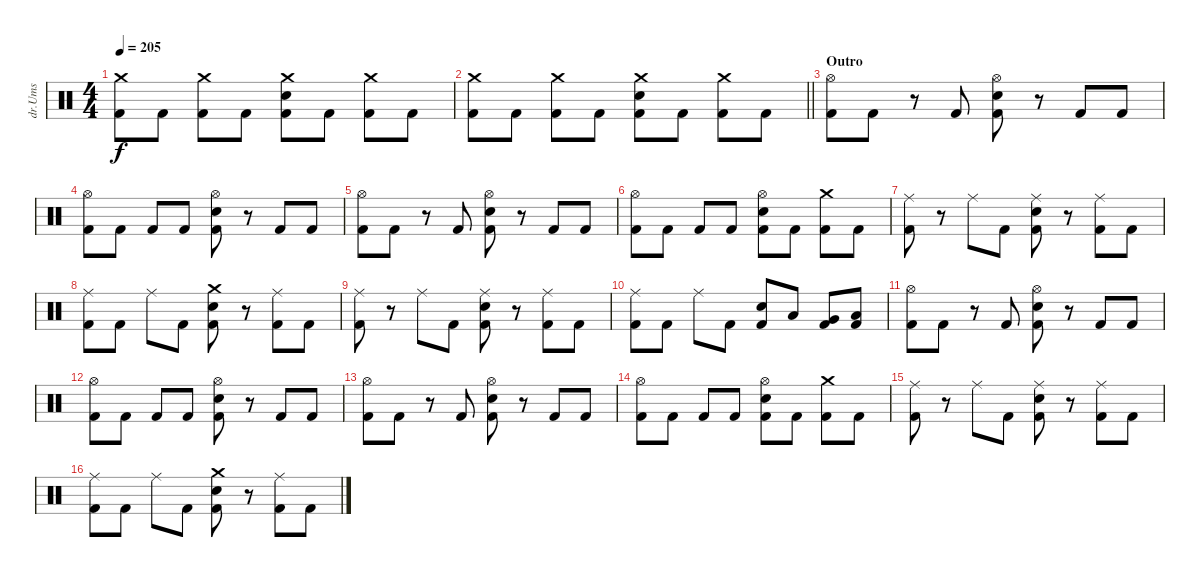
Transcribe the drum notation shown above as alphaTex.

\track ("dr.Ums" "dr.Ums") {instrument percussion}
\staff {score}
\articulation defaults
\ts (4 4)
\tempo 205
\clef neutral
\ks c
("Crash medium (hit)" "Kick (hit) 2").8{dy f} "Kick (hit) 2".8 ("Crash medium (hit)" "Kick (hit) 2").8 "Kick (hit) 2".8 ("Crash medium (hit)" "Snare (hit) 2" "Kick (hit) 2").8 "Kick (hit) 2".8 ("Crash medium (hit)" "Kick (hit) 2").8 "Kick (hit) 2".8 |
\barLineRight lightlight
("Crash medium (hit)" "Kick (hit) 2").8 "Kick (hit) 2".8 ("Crash medium (hit)" "Kick (hit) 2").8 "Kick (hit) 2".8 ("Crash medium (hit)" "Snare (hit) 2" "Kick (hit) 2").8 "Kick (hit) 2".8 ("Crash medium (hit)" "Kick (hit) 2").8 "Kick (hit) 2".8 |
\section ("" "Outro")
("Hi-Hat (open)" "Kick (hit) 2").8 "Kick (hit) 2".8 r.8 "Kick (hit) 2".8 ("Hi-Hat (open)" "Snare (hit) 2" "Kick (hit) 2").8 r.8 "Kick (hit) 2".8 "Kick (hit) 2".8 |
("Hi-Hat (open)" "Kick (hit) 2").8 "Kick (hit) 2".8 "Kick (hit) 2".8 "Kick (hit) 2".8 ("Hi-Hat (open)" "Snare (hit) 2" "Kick (hit) 2").8 r.8 "Kick (hit) 2".8 "Kick (hit) 2".8 |
("Hi-Hat (open)" "Kick (hit) 2").8 "Kick (hit) 2".8 r.8 "Kick (hit) 2".8 ("Hi-Hat (open)" "Snare (hit) 2" "Kick (hit) 2").8 r.8 "Kick (hit) 2".8 "Kick (hit) 2".8 |
("Hi-Hat (open)" "Kick (hit) 2").8 "Kick (hit) 2".8 "Kick (hit) 2".8 "Kick (hit) 2".8 ("Hi-Hat (open)" "Snare (hit) 2" "Kick (hit) 2").8 "Kick (hit) 2".8 ("Crash medium (hit)" "Kick (hit) 2").8 "Kick (hit) 2".8 |
("Ride (middle)" "Kick (hit) 2").8 r.8 "Ride (middle)".8 "Kick (hit) 2".8 ("Ride (middle)" "Snare (hit) 2" "Kick (hit) 2").8 r.8 ("Ride (middle)" "Kick (hit) 2").8 "Kick (hit) 2".8 |
("Ride (middle)" "Kick (hit) 2").8 "Kick (hit) 2".8 "Ride (middle)".8 "Kick (hit) 2".8 ("Crash medium (hit)" "Snare (hit) 2" "Kick (hit) 2").8 r.8 ("Ride (middle)" "Kick (hit) 2").8 "Kick (hit) 2".8 |
("Ride (middle)" "Kick (hit) 2").8 r.8 "Ride (middle)".8 "Kick (hit) 2".8 ("Ride (middle)" "Snare (hit) 2" "Kick (hit) 2").8 r.8 ("Ride (middle)" "Kick (hit) 2").8 "Kick (hit) 2".8 |
("Ride (middle)" "Kick (hit) 2").8 "Kick (hit) 2".8 "Ride (middle)".8 "Kick (hit) 2".8 ("Snare (hit) 2" "Kick (hit) 2").8 "Low Tom (hit)".8 ("Very Low Tom (hit)" "Kick (hit) 2").8 ("Low Floor Tom (hit)" "Kick (hit) 2").8 |
("Hi-Hat (open)" "Kick (hit) 2").8 "Kick (hit) 2".8 r.8 "Kick (hit) 2".8 ("Hi-Hat (open)" "Snare (hit) 2" "Kick (hit) 2").8 r.8 "Kick (hit) 2".8 "Kick (hit) 2".8 |
("Hi-Hat (open)" "Kick (hit) 2").8 "Kick (hit) 2".8 "Kick (hit) 2".8 "Kick (hit) 2".8 ("Hi-Hat (open)" "Snare (hit) 2" "Kick (hit) 2").8 r.8 "Kick (hit) 2".8 "Kick (hit) 2".8 |
("Hi-Hat (open)" "Kick (hit) 2").8 "Kick (hit) 2".8 r.8 "Kick (hit) 2".8 ("Hi-Hat (open)" "Snare (hit) 2" "Kick (hit) 2").8 r.8 "Kick (hit) 2".8 "Kick (hit) 2".8 |
("Hi-Hat (open)" "Kick (hit) 2").8 "Kick (hit) 2".8 "Kick (hit) 2".8 "Kick (hit) 2".8 ("Hi-Hat (open)" "Snare (hit) 2" "Kick (hit) 2").8 "Kick (hit) 2".8 ("Crash medium (hit)" "Kick (hit) 2").8 "Kick (hit) 2".8 |
("Ride (middle)" "Kick (hit) 2").8 r.8 "Ride (middle)".8 "Kick (hit) 2".8 ("Ride (middle)" "Snare (hit) 2" "Kick (hit) 2").8 r.8 ("Ride (middle)" "Kick (hit) 2").8 "Kick (hit) 2".8 |
("Ride (middle)" "Kick (hit) 2").8 "Kick (hit) 2".8 "Ride (middle)".8 "Kick (hit) 2".8 ("Crash medium (hit)" "Snare (hit) 2" "Kick (hit) 2").8 r.8 ("Ride (middle)" "Kick (hit) 2").8 "Kick (hit) 2".8
